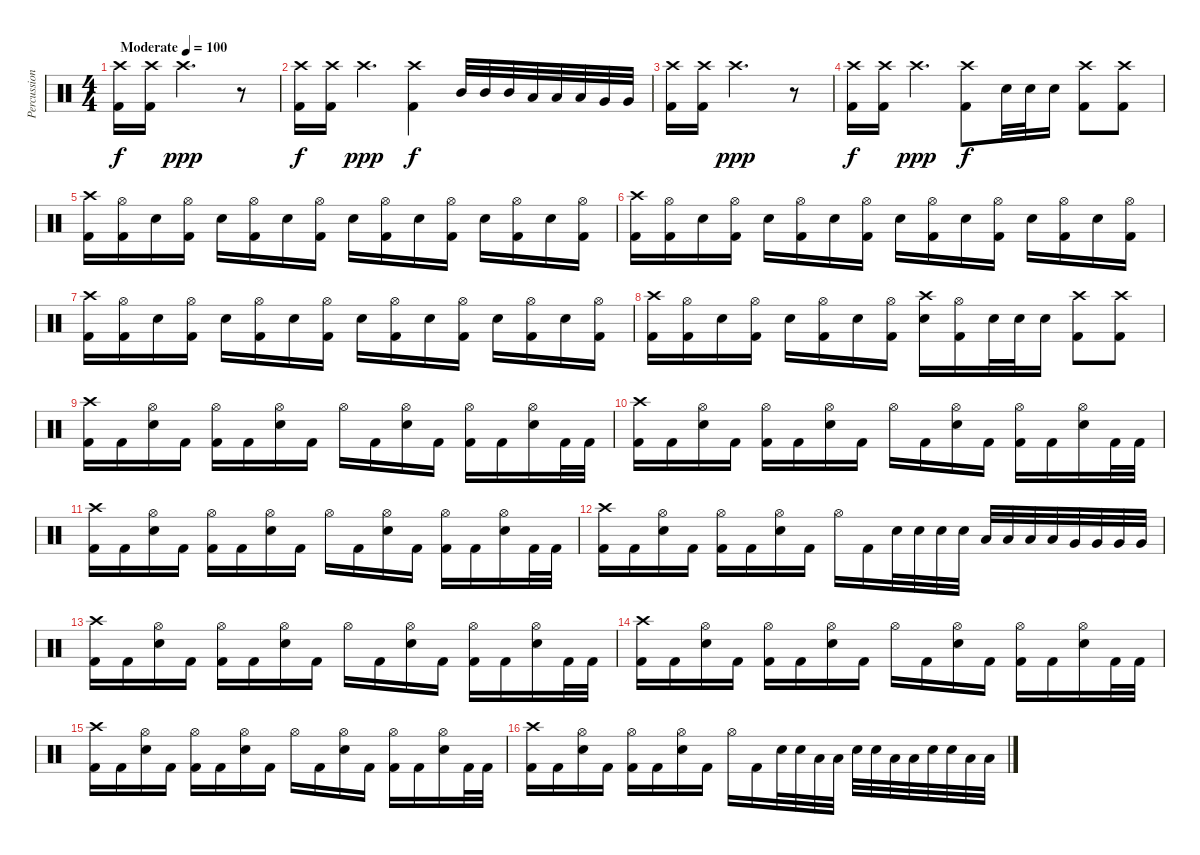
\track ("Percussion" "Percussion") {instrument percussion}
\staff {score}
\articulation defaults
\ts (4 4)
\tempo (100 "Moderate")
\clef neutral
\ks c
("Crash high (hit)" "Kick (hit) 2").16{dy f} ("Crash high (hit)" "Kick (hit) 2").16 "Crash high (hit)".2{d dy ppp} r.8 |
("Crash high (hit)" "Kick (hit) 2").16{dy f} ("Crash high (hit)" "Kick (hit) 2").16 "Crash high (hit)".4{d dy ppp} ("Crash high (hit)" "Kick (hit) 2").4{dy f} "Mid Tom (hit)".32 "Mid Tom (hit)".32 "Mid Tom (hit)".32 "Low Tom (hit)".32 "Low Tom (hit)".32 "Low Tom (hit)".32 "Very Low Tom (hit)".32 "Very Low Tom (hit)".32 |
("Crash high (hit)" "Kick (hit) 2").16 ("Crash high (hit)" "Kick (hit) 2").16 "Crash high (hit)".2{d dy ppp} r.8 |
("Crash high (hit)" "Kick (hit) 2").16{dy f} ("Crash high (hit)" "Kick (hit) 2").16 "Crash high (hit)".4{d dy ppp} ("Crash high (hit)" "Kick (hit) 2").8{dy f} "Electric Snare (hit)".32 "Electric Snare (hit)".32 "Electric Snare (hit)".16 ("Crash high (hit)" "Kick (hit) 2").8 ("Crash high (hit)" "Kick (hit) 2").8 |
("Crash high (hit)" "Kick (hit) 2").16 ("Hi-Hat (open)" "Kick (hit) 2").16 "Electric Snare (hit)".16 ("Hi-Hat (open)" "Kick (hit) 2").16 "Electric Snare (hit)".16 ("Hi-Hat (open)" "Kick (hit) 2").16 "Electric Snare (hit)".16 ("Hi-Hat (open)" "Kick (hit) 2").16 "Electric Snare (hit)".16 ("Hi-Hat (open)" "Kick (hit) 2").16 "Electric Snare (hit)".16 ("Hi-Hat (open)" "Kick (hit) 2").16 "Electric Snare (hit)".16 ("Hi-Hat (open)" "Kick (hit) 2").16 "Electric Snare (hit)".16 ("Hi-Hat (open)" "Kick (hit) 2").16 |
("Crash high (hit)" "Kick (hit) 2").16 ("Hi-Hat (open)" "Kick (hit) 2").16 "Electric Snare (hit)".16 ("Hi-Hat (open)" "Kick (hit) 2").16 "Electric Snare (hit)".16 ("Hi-Hat (open)" "Kick (hit) 2").16 "Electric Snare (hit)".16 ("Hi-Hat (open)" "Kick (hit) 2").16 "Electric Snare (hit)".16 ("Hi-Hat (open)" "Kick (hit) 2").16 "Electric Snare (hit)".16 ("Hi-Hat (open)" "Kick (hit) 2").16 "Electric Snare (hit)".16 ("Hi-Hat (open)" "Kick (hit) 2").16 "Electric Snare (hit)".16 ("Hi-Hat (open)" "Kick (hit) 2").16 |
("Crash high (hit)" "Kick (hit) 2").16 ("Hi-Hat (open)" "Kick (hit) 2").16 "Electric Snare (hit)".16 ("Hi-Hat (open)" "Kick (hit) 2").16 "Electric Snare (hit)".16 ("Hi-Hat (open)" "Kick (hit) 2").16 "Electric Snare (hit)".16 ("Hi-Hat (open)" "Kick (hit) 2").16 "Electric Snare (hit)".16 ("Hi-Hat (open)" "Kick (hit) 2").16 "Electric Snare (hit)".16 ("Hi-Hat (open)" "Kick (hit) 2").16 "Electric Snare (hit)".16 ("Hi-Hat (open)" "Kick (hit) 2").16 "Electric Snare (hit)".16 ("Hi-Hat (open)" "Kick (hit) 2").16 |
("Crash high (hit)" "Kick (hit) 2").16 ("Hi-Hat (open)" "Kick (hit) 2").16 "Electric Snare (hit)".16 ("Hi-Hat (open)" "Kick (hit) 2").16 "Electric Snare (hit)".16 ("Hi-Hat (open)" "Kick (hit) 2").16 "Electric Snare (hit)".16 ("Hi-Hat (open)" "Kick (hit) 2").16 ("Crash high (hit)" "Electric Snare (hit)").16 ("Hi-Hat (open)" "Kick (hit) 2").16 "Electric Snare (hit)".32 "Electric Snare (hit)".32 "Electric Snare (hit)".16 ("Crash high (hit)" "Kick (hit) 2").8 ("Crash high (hit)" "Kick (hit) 2").8 |
("Crash high (hit)" "Kick (hit) 2").16 "Kick (hit) 2".16 ("Hi-Hat (open)" "Electric Snare (hit)").16 "Kick (hit) 2".16 ("Hi-Hat (open)" "Kick (hit) 2").16 "Kick (hit) 2".16 ("Hi-Hat (open)" "Electric Snare (hit)").16 "Kick (hit) 2".16 "Hi-Hat (open)".16 "Kick (hit) 2".16 ("Hi-Hat (open)" "Electric Snare (hit)").16 "Kick (hit) 2".16 ("Hi-Hat (open)" "Kick (hit) 2").16 "Kick (hit) 2".16 ("Hi-Hat (open)" "Electric Snare (hit)").16 "Kick (hit) 2".32 "Kick (hit) 2".32 |
("Crash high (hit)" "Kick (hit) 2").16 "Kick (hit) 2".16 ("Hi-Hat (open)" "Electric Snare (hit)").16 "Kick (hit) 2".16 ("Hi-Hat (open)" "Kick (hit) 2").16 "Kick (hit) 2".16 ("Hi-Hat (open)" "Electric Snare (hit)").16 "Kick (hit) 2".16 "Hi-Hat (open)".16 "Kick (hit) 2".16 ("Hi-Hat (open)" "Electric Snare (hit)").16 "Kick (hit) 2".16 ("Hi-Hat (open)" "Kick (hit) 2").16 "Kick (hit) 2".16 ("Hi-Hat (open)" "Electric Snare (hit)").16 "Kick (hit) 2".32 "Kick (hit) 2".32 |
("Crash high (hit)" "Kick (hit) 2").16 "Kick (hit) 2".16 ("Hi-Hat (open)" "Electric Snare (hit)").16 "Kick (hit) 2".16 ("Hi-Hat (open)" "Kick (hit) 2").16 "Kick (hit) 2".16 ("Hi-Hat (open)" "Electric Snare (hit)").16 "Kick (hit) 2".16 "Hi-Hat (open)".16 "Kick (hit) 2".16 ("Hi-Hat (open)" "Electric Snare (hit)").16 "Kick (hit) 2".16 ("Hi-Hat (open)" "Kick (hit) 2").16 "Kick (hit) 2".16 ("Hi-Hat (open)" "Electric Snare (hit)").16 "Kick (hit) 2".32 "Kick (hit) 2".32 |
("Crash high (hit)" "Kick (hit) 2").16 "Kick (hit) 2".16 ("Hi-Hat (open)" "Electric Snare (hit)").16 "Kick (hit) 2".16 ("Hi-Hat (open)" "Kick (hit) 2").16 "Kick (hit) 2".16 ("Hi-Hat (open)" "Electric Snare (hit)").16 "Kick (hit) 2".16 "Hi-Hat (open)".16 "Kick (hit) 2".16 "Electric Snare (hit)".32 "Electric Snare (hit)".32 "Electric Snare (hit)".32 "Electric Snare (hit)".32 "Low Tom (hit)".32 "Low Tom (hit)".32 "Low Tom (hit)".32 "Low Tom (hit)".32 "Very Low Tom (hit)".32 "Very Low Tom (hit)".32 "Very Low Tom (hit)".32 "Very Low Tom (hit)".32 |
("Crash high (hit)" "Kick (hit) 2").16 "Kick (hit) 2".16 ("Hi-Hat (open)" "Electric Snare (hit)").16 "Kick (hit) 2".16 ("Hi-Hat (open)" "Kick (hit) 2").16 "Kick (hit) 2".16 ("Hi-Hat (open)" "Electric Snare (hit)").16 "Kick (hit) 2".16 "Hi-Hat (open)".16 "Kick (hit) 2".16 ("Hi-Hat (open)" "Electric Snare (hit)").16 "Kick (hit) 2".16 ("Hi-Hat (open)" "Kick (hit) 2").16 "Kick (hit) 2".16 ("Hi-Hat (open)" "Electric Snare (hit)").16 "Kick (hit) 2".32 "Kick (hit) 2".32 |
("Crash high (hit)" "Kick (hit) 2").16 "Kick (hit) 2".16 ("Hi-Hat (open)" "Electric Snare (hit)").16 "Kick (hit) 2".16 ("Hi-Hat (open)" "Kick (hit) 2").16 "Kick (hit) 2".16 ("Hi-Hat (open)" "Electric Snare (hit)").16 "Kick (hit) 2".16 "Hi-Hat (open)".16 "Kick (hit) 2".16 ("Hi-Hat (open)" "Electric Snare (hit)").16 "Kick (hit) 2".16 ("Hi-Hat (open)" "Kick (hit) 2").16 "Kick (hit) 2".16 ("Hi-Hat (open)" "Electric Snare (hit)").16 "Kick (hit) 2".32 "Kick (hit) 2".32 |
("Crash high (hit)" "Kick (hit) 2").16 "Kick (hit) 2".16 ("Hi-Hat (open)" "Electric Snare (hit)").16 "Kick (hit) 2".16 ("Hi-Hat (open)" "Kick (hit) 2").16 "Kick (hit) 2".16 ("Hi-Hat (open)" "Electric Snare (hit)").16 "Kick (hit) 2".16 "Hi-Hat (open)".16 "Kick (hit) 2".16 ("Hi-Hat (open)" "Electric Snare (hit)").16 "Kick (hit) 2".16 ("Hi-Hat (open)" "Kick (hit) 2").16 "Kick (hit) 2".16 ("Hi-Hat (open)" "Electric Snare (hit)").16 "Kick (hit) 2".32 "Kick (hit) 2".32 |
("Crash high (hit)" "Kick (hit) 2").16 "Kick (hit) 2".16 ("Hi-Hat (open)" "Electric Snare (hit)").16 "Kick (hit) 2".16 ("Hi-Hat (open)" "Kick (hit) 2").16 "Kick (hit) 2".16 ("Hi-Hat (open)" "Electric Snare (hit)").16 "Kick (hit) 2".16 "Hi-Hat (open)".16 "Kick (hit) 2".16 "Electric Snare (hit)".32 "Electric Snare (hit)".32 "Low Tom (hit)".32 "Low Tom (hit)".32 "Electric Snare (hit)".32 "Electric Snare (hit)".32 "Low Tom (hit)".32 "Low Tom (hit)".32 "Electric Snare (hit)".32 "Electric Snare (hit)".32 "Low Tom (hit)".32 "Low Tom (hit)".32
